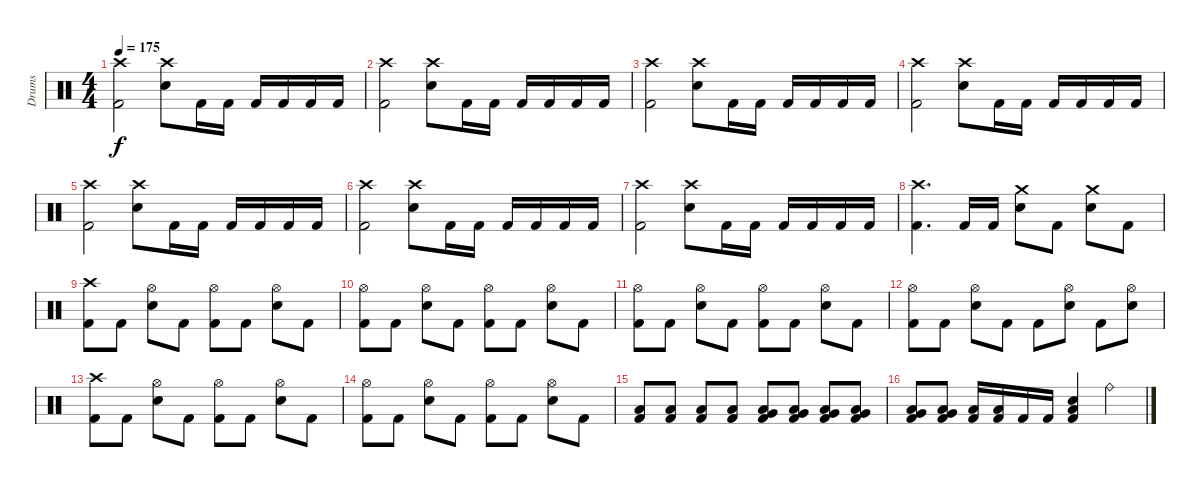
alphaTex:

\track ("Drums" "Drums") {instrument percussion}
\staff {score}
\articulation defaults
\ts (4 4)
\tempo 175
\clef neutral
\ks c
("Crash high (hit)" "Kick (hit) 2").2{dy f} ("Crash high (hit)" "Snare (hit) 2").8 "Kick (hit) 2".16 "Kick (hit) 2".16 "Kick (hit) 2".16 "Kick (hit) 2".16 "Kick (hit) 2".16 "Kick (hit) 2".16 |
("Crash high (hit)" "Kick (hit) 2").2 ("Crash high (hit)" "Snare (hit) 2").8 "Kick (hit) 2".16 "Kick (hit) 2".16 "Kick (hit) 2".16 "Kick (hit) 2".16 "Kick (hit) 2".16 "Kick (hit) 2".16 |
("Crash high (hit)" "Kick (hit) 2").2 ("Crash high (hit)" "Snare (hit) 2").8 "Kick (hit) 2".16 "Kick (hit) 2".16 "Kick (hit) 2".16 "Kick (hit) 2".16 "Kick (hit) 2".16 "Kick (hit) 2".16 |
("Crash high (hit)" "Kick (hit) 2").2 ("Crash high (hit)" "Snare (hit) 2").8 "Kick (hit) 2".16 "Kick (hit) 2".16 "Kick (hit) 2".16 "Kick (hit) 2".16 "Kick (hit) 2".16 "Kick (hit) 2".16 |
("Crash high (hit)" "Kick (hit) 2").2 ("Crash high (hit)" "Snare (hit) 2").8 "Kick (hit) 2".16 "Kick (hit) 2".16 "Kick (hit) 2".16 "Kick (hit) 2".16 "Kick (hit) 2".16 "Kick (hit) 2".16 |
("Crash high (hit)" "Kick (hit) 2").2 ("Crash high (hit)" "Snare (hit) 2").8 "Kick (hit) 2".16 "Kick (hit) 2".16 "Kick (hit) 2".16 "Kick (hit) 2".16 "Kick (hit) 2".16 "Kick (hit) 2".16 |
("Crash high (hit)" "Kick (hit) 2").2 ("Crash high (hit)" "Snare (hit) 2").8 "Kick (hit) 2".16 "Kick (hit) 2".16 "Kick (hit) 2".16 "Kick (hit) 2".16 "Kick (hit) 2".16 "Kick (hit) 2".16 |
("Crash high (hit)" "Kick (hit) 2").4{d} "Kick (hit) 2".16 "Kick (hit) 2".16 ("Crash medium (hit)" "Snare (hit) 2").8 "Kick (hit) 2".8 ("Crash medium (hit)" "Snare (hit) 2").8 "Kick (hit) 2".8 |
("Crash high (hit)" "Kick (hit) 2").8 "Kick (hit) 2".8 ("Hi-Hat (open)" "Snare (hit) 2").8 "Kick (hit) 2".8 ("Hi-Hat (open)" "Kick (hit) 2").8 "Kick (hit) 2".8 ("Hi-Hat (open)" "Snare (hit) 2").8 "Kick (hit) 2".8 |
("Hi-Hat (open)" "Kick (hit) 2").8 "Kick (hit) 2".8 ("Hi-Hat (open)" "Snare (hit) 2").8 "Kick (hit) 2".8 ("Hi-Hat (open)" "Kick (hit) 2").8 "Kick (hit) 2".8 ("Hi-Hat (open)" "Snare (hit) 2").8 "Kick (hit) 2".8 |
("Hi-Hat (open)" "Kick (hit) 2").8 "Kick (hit) 2".8 ("Hi-Hat (open)" "Snare (hit) 2").8 "Kick (hit) 2".8 ("Hi-Hat (open)" "Kick (hit) 2").8 "Kick (hit) 2".8 ("Hi-Hat (open)" "Snare (hit) 2").8 "Kick (hit) 2".8 |
("Hi-Hat (open)" "Kick (hit) 2").8 "Kick (hit) 2".8 ("Hi-Hat (open)" "Snare (hit) 2").8 "Kick (hit) 2".8 "Kick (hit) 2".8 ("Hi-Hat (open)" "Snare (hit) 2").8 "Kick (hit) 2".8 ("Hi-Hat (open)" "Snare (hit) 2").8 |
("Crash high (hit)" "Kick (hit) 2").8 "Kick (hit) 2".8 ("Hi-Hat (open)" "Snare (hit) 2").8 "Kick (hit) 2".8 ("Hi-Hat (open)" "Kick (hit) 2").8 "Kick (hit) 2".8 ("Hi-Hat (open)" "Snare (hit) 2").8 "Kick (hit) 2".8 |
("Hi-Hat (open)" "Kick (hit) 2").8 "Kick (hit) 2".8 ("Hi-Hat (open)" "Snare (hit) 2").8 "Kick (hit) 2".8 ("Hi-Hat (open)" "Kick (hit) 2").8 "Kick (hit) 2".8 ("Hi-Hat (open)" "Snare (hit) 2").8 "Kick (hit) 2".8 |
("Low Floor Tom (hit)" "Kick (hit) 2").8 ("Low Floor Tom (hit)" "Kick (hit) 2").8 ("Low Floor Tom (hit)" "Kick (hit) 2").8 ("Low Floor Tom (hit)" "Kick (hit) 2").8 ("Very Low Tom (hit)" "Low Floor Tom (hit)" "Kick (hit) 2").8 ("Very Low Tom (hit)" "Low Floor Tom (hit)" "Kick (hit) 2").8 ("Very Low Tom (hit)" "Low Floor Tom (hit)" "Kick (hit) 2").8 ("Very Low Tom (hit)" "Low Floor Tom (hit)" "Kick (hit) 2").8 |
("Very Low Tom (hit)" "Low Floor Tom (hit)" "Kick (hit) 2").8 ("Very Low Tom (hit)" "Low Floor Tom (hit)" "Kick (hit) 2").8 ("Low Tom (hit)" "Kick (hit) 2").16 ("Low Tom (hit)" "Kick (hit) 2").16 "Kick (hit) 2".16 "Kick (hit) 2".16 ("Kick (hit) 2" "Low Floor Tom (hit)" "Snare (hit) 2").4 "Ride (bell)".4
